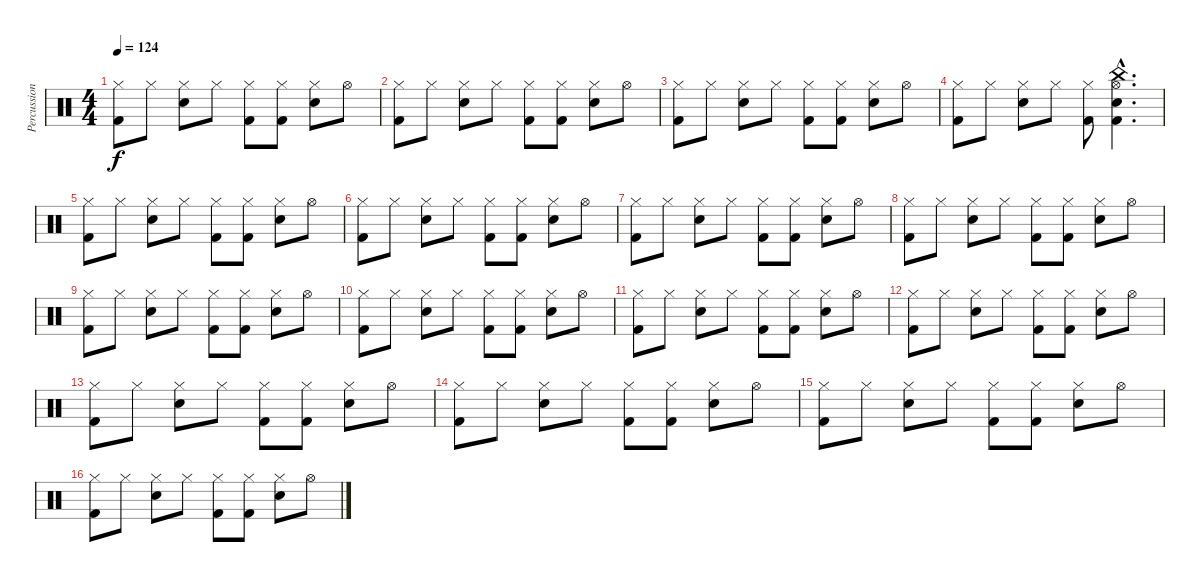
\track ("Percussions" "Percussion") {instrument percussion}
\staff {score}
\articulation defaults
\ts (4 4)
\tempo 124
\clef neutral
\ks c
("Hi-Hat (closed)" "Kick (hit) 2").8{dy f} "Hi-Hat (closed)".8 ("Hi-Hat (closed)" "Snare (hit) 2").8 "Hi-Hat (closed)".8 ("Hi-Hat (closed)" "Kick (hit) 2").8 ("Hi-Hat (closed)" "Kick (hit) 2").8 ("Hi-Hat (closed)" "Snare (hit) 2").8 "Hi-Hat (open)".8 |
("Hi-Hat (closed)" "Kick (hit) 2").8 "Hi-Hat (closed)".8 ("Hi-Hat (closed)" "Snare (hit) 2").8 "Hi-Hat (closed)".8 ("Hi-Hat (closed)" "Kick (hit) 2").8 ("Hi-Hat (closed)" "Kick (hit) 2").8 ("Hi-Hat (closed)" "Snare (hit) 2").8 "Hi-Hat (open)".8 |
("Hi-Hat (closed)" "Kick (hit) 2").8 "Hi-Hat (closed)".8 ("Hi-Hat (closed)" "Snare (hit) 2").8 "Hi-Hat (closed)".8 ("Hi-Hat (closed)" "Kick (hit) 2").8 ("Hi-Hat (closed)" "Kick (hit) 2").8 ("Hi-Hat (closed)" "Snare (hit) 2").8 "Hi-Hat (open)".8 |
("Hi-Hat (closed)" "Kick (hit) 2").8 "Hi-Hat (closed)".8 ("Hi-Hat (closed)" "Snare (hit) 2").8 "Hi-Hat (closed)".8 ("Hi-Hat (closed)" "Kick (hit) 2").8 ("Hi-Hat (open)"{hac} "China (hit)"{hac} "Snare (hit) 2"{hac} "Kick (hit) 2"{hac}).4{d} |
("Hi-Hat (closed)" "Kick (hit) 2").8 "Hi-Hat (closed)".8 ("Hi-Hat (closed)" "Snare (hit) 2").8 "Hi-Hat (closed)".8 ("Hi-Hat (closed)" "Kick (hit) 2").8 ("Hi-Hat (closed)" "Kick (hit) 2").8 ("Hi-Hat (closed)" "Snare (hit) 2").8 "Hi-Hat (open)".8 |
("Hi-Hat (closed)" "Kick (hit) 2").8 "Hi-Hat (closed)".8 ("Hi-Hat (closed)" "Snare (hit) 2").8 "Hi-Hat (closed)".8 ("Hi-Hat (closed)" "Kick (hit) 2").8 ("Hi-Hat (closed)" "Kick (hit) 2").8 ("Hi-Hat (closed)" "Snare (hit) 2").8 "Hi-Hat (open)".8 |
("Hi-Hat (closed)" "Kick (hit) 2").8 "Hi-Hat (closed)".8 ("Hi-Hat (closed)" "Snare (hit) 2").8 "Hi-Hat (closed)".8 ("Hi-Hat (closed)" "Kick (hit) 2").8 ("Hi-Hat (closed)" "Kick (hit) 2").8 ("Hi-Hat (closed)" "Snare (hit) 2").8 "Hi-Hat (open)".8 |
("Hi-Hat (closed)" "Kick (hit) 2").8 "Hi-Hat (closed)".8 ("Hi-Hat (closed)" "Snare (hit) 2").8 "Hi-Hat (closed)".8 ("Hi-Hat (closed)" "Kick (hit) 2").8 ("Hi-Hat (closed)" "Kick (hit) 2").8 ("Hi-Hat (closed)" "Snare (hit) 2").8 "Hi-Hat (open)".8 |
("Hi-Hat (closed)" "Kick (hit) 2").8 "Hi-Hat (closed)".8 ("Hi-Hat (closed)" "Snare (hit) 2").8 "Hi-Hat (closed)".8 ("Hi-Hat (closed)" "Kick (hit) 2").8 ("Hi-Hat (closed)" "Kick (hit) 2").8 ("Hi-Hat (closed)" "Snare (hit) 2").8 "Hi-Hat (open)".8 |
("Hi-Hat (closed)" "Kick (hit) 2").8 "Hi-Hat (closed)".8 ("Hi-Hat (closed)" "Snare (hit) 2").8 "Hi-Hat (closed)".8 ("Hi-Hat (closed)" "Kick (hit) 2").8 ("Hi-Hat (closed)" "Kick (hit) 2").8 ("Hi-Hat (closed)" "Snare (hit) 2").8 "Hi-Hat (open)".8 |
("Hi-Hat (closed)" "Kick (hit) 2").8 "Hi-Hat (closed)".8 ("Hi-Hat (closed)" "Snare (hit) 2").8 "Hi-Hat (closed)".8 ("Hi-Hat (closed)" "Kick (hit) 2").8 ("Hi-Hat (closed)" "Kick (hit) 2").8 ("Hi-Hat (closed)" "Snare (hit) 2").8 "Hi-Hat (open)".8 |
("Hi-Hat (closed)" "Kick (hit) 2").8 "Hi-Hat (closed)".8 ("Hi-Hat (closed)" "Snare (hit) 2").8 "Hi-Hat (closed)".8 ("Hi-Hat (closed)" "Kick (hit) 2").8 ("Hi-Hat (closed)" "Kick (hit) 2").8 ("Hi-Hat (closed)" "Snare (hit) 2").8 "Hi-Hat (open)".8 |
("Hi-Hat (closed)" "Kick (hit) 2").8 "Hi-Hat (closed)".8 ("Hi-Hat (closed)" "Snare (hit) 2").8 "Hi-Hat (closed)".8 ("Hi-Hat (closed)" "Kick (hit) 2").8 ("Hi-Hat (closed)" "Kick (hit) 2").8 ("Hi-Hat (closed)" "Snare (hit) 2").8 "Hi-Hat (open)".8 |
("Hi-Hat (closed)" "Kick (hit) 2").8 "Hi-Hat (closed)".8 ("Hi-Hat (closed)" "Snare (hit) 2").8 "Hi-Hat (closed)".8 ("Hi-Hat (closed)" "Kick (hit) 2").8 ("Hi-Hat (closed)" "Kick (hit) 2").8 ("Hi-Hat (closed)" "Snare (hit) 2").8 "Hi-Hat (open)".8 |
("Hi-Hat (closed)" "Kick (hit) 2").8 "Hi-Hat (closed)".8 ("Hi-Hat (closed)" "Snare (hit) 2").8 "Hi-Hat (closed)".8 ("Hi-Hat (closed)" "Kick (hit) 2").8 ("Hi-Hat (closed)" "Kick (hit) 2").8 ("Hi-Hat (closed)" "Snare (hit) 2").8 "Hi-Hat (open)".8 |
("Hi-Hat (closed)" "Kick (hit) 2").8 "Hi-Hat (closed)".8 ("Hi-Hat (closed)" "Snare (hit) 2").8 "Hi-Hat (closed)".8 ("Hi-Hat (closed)" "Kick (hit) 2").8 ("Hi-Hat (closed)" "Kick (hit) 2").8 ("Hi-Hat (closed)" "Snare (hit) 2").8 "Hi-Hat (open)".8
